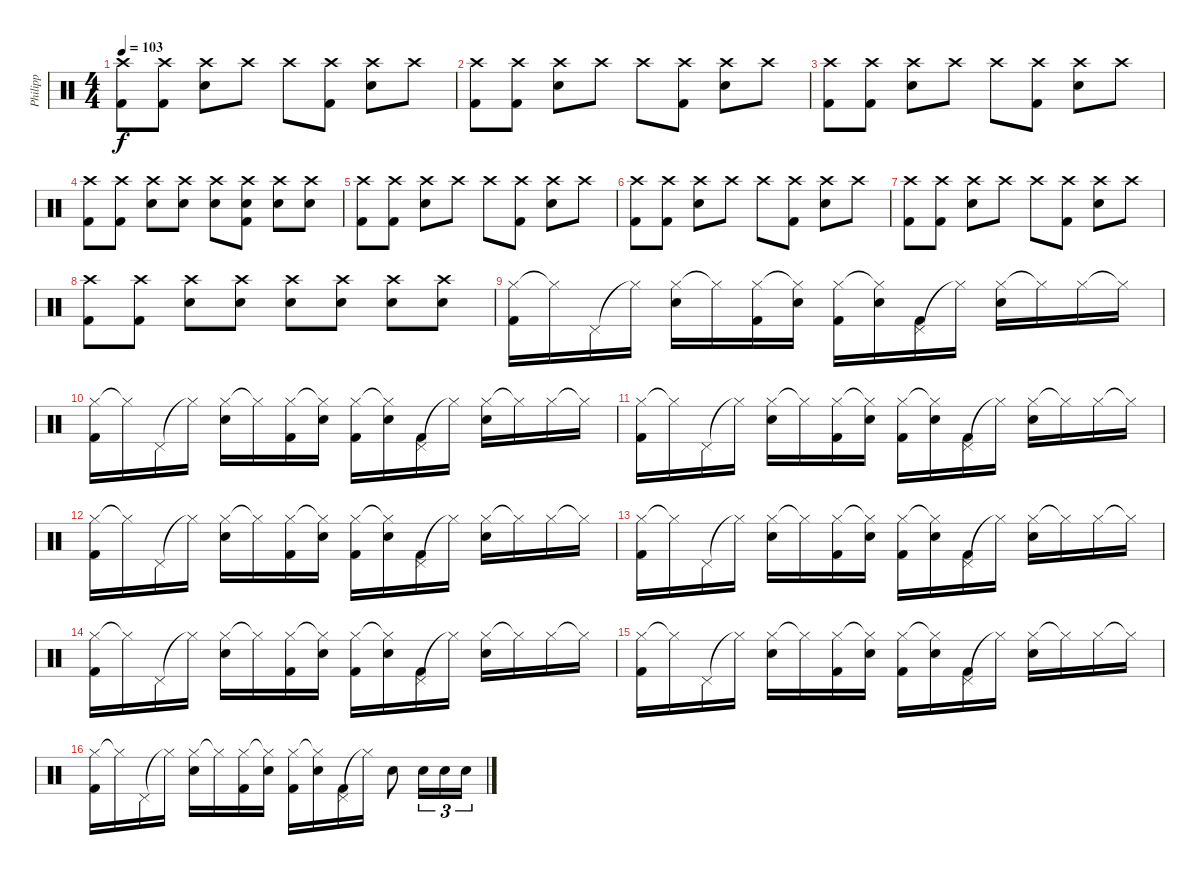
\track ("Philipp" "Philipp") {instrument percussion}
\staff {score}
\articulation defaults
\ts (4 4)
\tempo 103
\clef neutral
\ks c
("Crash high (hit)" "Kick (hit) 2").8{dy f} ("Crash high (hit)" "Kick (hit) 2").8 ("Crash high (hit)" "Electric Snare (hit)").8 "Crash high (hit)".8 "Crash high (hit)".8 ("Crash high (hit)" "Kick (hit) 2").8 ("Crash high (hit)" "Electric Snare (hit)").8 "Crash high (hit)".8 |
("Crash high (hit)" "Kick (hit) 2").8 ("Crash high (hit)" "Kick (hit) 2").8 ("Crash high (hit)" "Electric Snare (hit)").8 "Crash high (hit)".8 "Crash high (hit)".8 ("Crash high (hit)" "Kick (hit) 2").8 ("Crash high (hit)" "Electric Snare (hit)").8 "Crash high (hit)".8 |
("Crash high (hit)" "Kick (hit) 2").8 ("Crash high (hit)" "Kick (hit) 2").8 ("Crash high (hit)" "Electric Snare (hit)").8 "Crash high (hit)".8 "Crash high (hit)".8 ("Crash high (hit)" "Kick (hit) 2").8 ("Crash high (hit)" "Electric Snare (hit)").8 "Crash high (hit)".8 |
("Crash high (hit)" "Kick (hit) 2").8 ("Crash high (hit)" "Kick (hit) 2").8 ("Crash high (hit)" "Electric Snare (hit)").8 ("Crash high (hit)" "Electric Snare (hit)").8 ("Crash high (hit)" "Electric Snare (hit)").8 ("Crash high (hit)" "Electric Snare (hit)" "Kick (hit) 2").8 ("Crash high (hit)" "Electric Snare (hit)").8 ("Crash high (hit)" "Electric Snare (hit)").8 |
("Crash high (hit)" "Kick (hit) 2").8 ("Crash high (hit)" "Kick (hit) 2").8 ("Crash high (hit)" "Electric Snare (hit)").8 "Crash high (hit)".8 "Crash high (hit)".8 ("Crash high (hit)" "Kick (hit) 2").8 ("Crash high (hit)" "Electric Snare (hit)").8 "Crash high (hit)".8 |
("Crash high (hit)" "Kick (hit) 2").8 ("Crash high (hit)" "Kick (hit) 2").8 ("Crash high (hit)" "Electric Snare (hit)").8 "Crash high (hit)".8 "Crash high (hit)".8 ("Crash high (hit)" "Kick (hit) 2").8 ("Crash high (hit)" "Electric Snare (hit)").8 "Crash high (hit)".8 |
("Crash high (hit)" "Kick (hit) 2").8 ("Crash high (hit)" "Kick (hit) 2").8 ("Crash high (hit)" "Electric Snare (hit)").8 "Crash high (hit)".8 "Crash high (hit)".8 ("Crash high (hit)" "Kick (hit) 2").8 ("Crash high (hit)" "Electric Snare (hit)").8 "Crash high (hit)".8 |
("Crash high (hit)" "Kick (hit) 2").8 ("Crash high (hit)" "Kick (hit) 2").8 ("Crash high (hit)" "Electric Snare (hit)").8 ("Crash high (hit)" "Electric Snare (hit)").8 ("Crash high (hit)" "Electric Snare (hit)").8 ("Crash high (hit)" "Electric Snare (hit)").8 ("Crash high (hit)" "Electric Snare (hit)").8 ("Crash high (hit)" "Electric Snare (hit)").8 |
("Hi-Hat (closed)" "Kick (hit) 2").16 "Hi-Hat (closed)"{t}.16 "Pedal Hi-Hat (hit)".16 "Hi-Hat (closed)"{t}.16 ("Hi-Hat (closed)" "Electric Snare (hit)").16 "Hi-Hat (closed)"{t}.16 ("Hi-Hat (closed)" "Kick (hit) 2").16 ("Hi-Hat (closed)"{t} "Electric Snare (hit)").16 ("Hi-Hat (closed)" "Kick (hit) 2").16 ("Hi-Hat (closed)"{t} "Electric Snare (hit)").16 ("Pedal Hi-Hat (hit)" "Kick (hit) 2").16 "Hi-Hat (closed)"{t}.16 ("Hi-Hat (closed)" "Electric Snare (hit)").16 "Hi-Hat (closed)"{t}.16 "Hi-Hat (closed)".16 "Hi-Hat (closed)"{t}.16 |
("Hi-Hat (closed)" "Kick (hit) 2").16 "Hi-Hat (closed)"{t}.16 "Pedal Hi-Hat (hit)".16 "Hi-Hat (closed)"{t}.16 ("Hi-Hat (closed)" "Electric Snare (hit)").16 "Hi-Hat (closed)"{t}.16 ("Hi-Hat (closed)" "Kick (hit) 2").16 ("Hi-Hat (closed)"{t} "Electric Snare (hit)").16 ("Hi-Hat (closed)" "Kick (hit) 2").16 ("Hi-Hat (closed)"{t} "Electric Snare (hit)").16 ("Pedal Hi-Hat (hit)" "Kick (hit) 2").16 "Hi-Hat (closed)"{t}.16 ("Hi-Hat (closed)" "Electric Snare (hit)").16 "Hi-Hat (closed)"{t}.16 "Hi-Hat (closed)".16 "Hi-Hat (closed)"{t}.16 |
("Hi-Hat (closed)" "Kick (hit) 2").16 "Hi-Hat (closed)"{t}.16 "Pedal Hi-Hat (hit)".16 "Hi-Hat (closed)"{t}.16 ("Hi-Hat (closed)" "Electric Snare (hit)").16 "Hi-Hat (closed)"{t}.16 ("Hi-Hat (closed)" "Kick (hit) 2").16 ("Hi-Hat (closed)"{t} "Electric Snare (hit)").16 ("Hi-Hat (closed)" "Kick (hit) 2").16 ("Hi-Hat (closed)"{t} "Electric Snare (hit)").16 ("Pedal Hi-Hat (hit)" "Kick (hit) 2").16 "Hi-Hat (closed)"{t}.16 ("Hi-Hat (closed)" "Electric Snare (hit)").16 "Hi-Hat (closed)"{t}.16 "Hi-Hat (closed)".16 "Hi-Hat (closed)"{t}.16 |
("Hi-Hat (closed)" "Kick (hit) 2").16 "Hi-Hat (closed)"{t}.16 "Pedal Hi-Hat (hit)".16 "Hi-Hat (closed)"{t}.16 ("Hi-Hat (closed)" "Electric Snare (hit)").16 "Hi-Hat (closed)"{t}.16 ("Hi-Hat (closed)" "Kick (hit) 2").16 ("Hi-Hat (closed)"{t} "Electric Snare (hit)").16 ("Hi-Hat (closed)" "Kick (hit) 2").16 ("Hi-Hat (closed)"{t} "Electric Snare (hit)").16 ("Pedal Hi-Hat (hit)" "Kick (hit) 2").16 "Hi-Hat (closed)"{t}.16 ("Hi-Hat (closed)" "Electric Snare (hit)").16 "Hi-Hat (closed)"{t}.16 "Hi-Hat (closed)".16 "Hi-Hat (closed)"{t}.16 |
("Hi-Hat (closed)" "Kick (hit) 2").16 "Hi-Hat (closed)"{t}.16 "Pedal Hi-Hat (hit)".16 "Hi-Hat (closed)"{t}.16 ("Hi-Hat (closed)" "Electric Snare (hit)").16 "Hi-Hat (closed)"{t}.16 ("Hi-Hat (closed)" "Kick (hit) 2").16 ("Hi-Hat (closed)"{t} "Electric Snare (hit)").16 ("Hi-Hat (closed)" "Kick (hit) 2").16 ("Hi-Hat (closed)"{t} "Electric Snare (hit)").16 ("Pedal Hi-Hat (hit)" "Kick (hit) 2").16 "Hi-Hat (closed)"{t}.16 ("Hi-Hat (closed)" "Electric Snare (hit)").16 "Hi-Hat (closed)"{t}.16 "Hi-Hat (closed)".16 "Hi-Hat (closed)"{t}.16 |
("Hi-Hat (closed)" "Kick (hit) 2").16 "Hi-Hat (closed)"{t}.16 "Pedal Hi-Hat (hit)".16 "Hi-Hat (closed)"{t}.16 ("Hi-Hat (closed)" "Electric Snare (hit)").16 "Hi-Hat (closed)"{t}.16 ("Hi-Hat (closed)" "Kick (hit) 2").16 ("Hi-Hat (closed)"{t} "Electric Snare (hit)").16 ("Hi-Hat (closed)" "Kick (hit) 2").16 ("Hi-Hat (closed)"{t} "Electric Snare (hit)").16 ("Pedal Hi-Hat (hit)" "Kick (hit) 2").16 "Hi-Hat (closed)"{t}.16 ("Hi-Hat (closed)" "Electric Snare (hit)").16 "Hi-Hat (closed)"{t}.16 "Hi-Hat (closed)".16 "Hi-Hat (closed)"{t}.16 |
("Hi-Hat (closed)" "Kick (hit) 2").16 "Hi-Hat (closed)"{t}.16 "Pedal Hi-Hat (hit)".16 "Hi-Hat (closed)"{t}.16 ("Hi-Hat (closed)" "Electric Snare (hit)").16 "Hi-Hat (closed)"{t}.16 ("Hi-Hat (closed)" "Kick (hit) 2").16 ("Hi-Hat (closed)"{t} "Electric Snare (hit)").16 ("Hi-Hat (closed)" "Kick (hit) 2").16 ("Hi-Hat (closed)"{t} "Electric Snare (hit)").16 ("Pedal Hi-Hat (hit)" "Kick (hit) 2").16 "Hi-Hat (closed)"{t}.16 ("Hi-Hat (closed)" "Electric Snare (hit)").16 "Hi-Hat (closed)"{t}.16 "Hi-Hat (closed)".16 "Hi-Hat (closed)"{t}.16 |
("Hi-Hat (closed)" "Kick (hit) 2").16 "Hi-Hat (closed)"{t}.16 "Pedal Hi-Hat (hit)".16 "Hi-Hat (closed)"{t}.16 ("Hi-Hat (closed)" "Electric Snare (hit)").16 "Hi-Hat (closed)"{t}.16 ("Hi-Hat (closed)" "Kick (hit) 2").16 ("Hi-Hat (closed)"{t} "Electric Snare (hit)").16 ("Hi-Hat (closed)" "Kick (hit) 2").16 ("Hi-Hat (closed)"{t} "Electric Snare (hit)").16 ("Pedal Hi-Hat (hit)" "Kick (hit) 2").16 "Hi-Hat (closed)"{t}.16 "Electric Snare (hit)".8 "Electric Snare (hit)".16{tu (3 2)} "Electric Snare (hit)".16{tu (3 2)} "Electric Snare (hit)".16{tu (3 2)}
